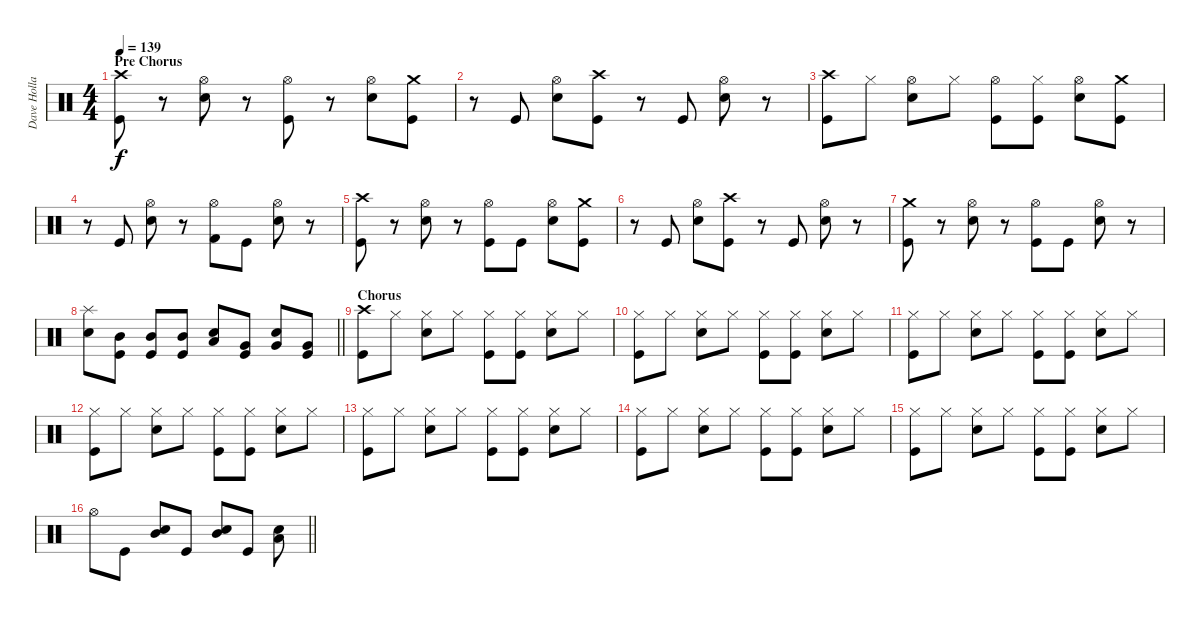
\track ("Dave Holland" "Dave Holla") {instrument percussion}
\staff {score}
\articulation defaults
\ts (4 4)
\section ("" "Pre Chorus")
\tempo 139
\clef neutral
\ks c
("Crash high (hit)" "Kick (hit)").8{dy f} r.8 ("Hi-Hat (open)" "Electric Snare (hit)").8 r.8 ("Hi-Hat (open)" "Kick (hit)").8 r.8 ("Hi-Hat (open)" "Electric Snare (hit)").8 ("Crash medium (hit)" "Kick (hit)").8 |
r.8 "Kick (hit)".8 ("Hi-Hat (open)" "Electric Snare (hit)").8 ("Crash high (hit)" "Kick (hit)").8 r.8 "Kick (hit)".8 ("Hi-Hat (open)" "Electric Snare (hit)").8 r.8 |
("Crash high (hit)" "Kick (hit)").8 "Hi-Hat (closed)".8 ("Hi-Hat (open)" "Electric Snare (hit)").8 "Hi-Hat (closed)".8 ("Hi-Hat (open)" "Kick (hit)").8 ("Hi-Hat (closed)" "Kick (hit)").8 ("Hi-Hat (open)" "Electric Snare (hit)").8 ("Crash medium (hit)" "Kick (hit)").8 |
r.8 "Kick (hit)".8 ("Hi-Hat (open)" "Electric Snare (hit)").8 r.8 ("Hi-Hat (open)" "Kick (hit) 2").8 "Kick (hit)".8 ("Hi-Hat (open)" "Electric Snare (hit)").8 r.8 |
("Crash high (hit)" "Kick (hit)").8 r.8 ("Hi-Hat (open)" "Electric Snare (hit)").8 r.8 ("Hi-Hat (open)" "Kick (hit)").8 "Kick (hit)".8 ("Hi-Hat (open)" "Electric Snare (hit)").8 ("Crash medium (hit)" "Kick (hit)").8 |
r.8 "Kick (hit)".8 ("Hi-Hat (open)" "Electric Snare (hit)").8 ("Crash high (hit)" "Kick (hit)").8 r.8 "Kick (hit)".8 ("Hi-Hat (open)" "Electric Snare (hit)").8 r.8 |
("Crash medium (hit)" "Kick (hit)").8 r.8 ("Hi-Hat (open)" "Electric Snare (hit)").8 r.8 ("Hi-Hat (open)" "Kick (hit)").8 "Kick (hit)".8 ("Hi-Hat (open)" "Electric Snare (hit)").8 r.8 |
\barLineRight lightlight
("Splash (hit)" "Electric Snare (hit)").8 ("Mid Tom (hit)" "Kick (hit)").8 ("Mid Tom (hit)" "Kick (hit)").8 ("Mid Tom (hit)" "Kick (hit)").8 ("Low Tom (hit)" "Electric Snare (hit)").8 ("Very Low Tom (hit)" "Kick (hit)").8 ("Very Low Tom (hit)" "Electric Snare (hit)").8 ("Very Low Tom (hit)" "Kick (hit)").8 |
\section ("" "Chorus")
("Crash high (hit)" "Kick (hit)").8 "Hi-Hat (closed)".8 ("Hi-Hat (closed)" "Electric Snare (hit)").8 "Hi-Hat (closed)".8 ("Hi-Hat (closed)" "Kick (hit)").8 ("Hi-Hat (closed)" "Kick (hit)").8 ("Hi-Hat (closed)" "Electric Snare (hit)").8 "Hi-Hat (closed)".8 |
("Hi-Hat (closed)" "Kick (hit)").8 "Hi-Hat (closed)".8 ("Hi-Hat (closed)" "Electric Snare (hit)").8 "Hi-Hat (closed)".8 ("Hi-Hat (closed)" "Kick (hit)").8 ("Hi-Hat (closed)" "Kick (hit)").8 ("Hi-Hat (closed)" "Electric Snare (hit)").8 "Hi-Hat (closed)".8 |
("Hi-Hat (closed)" "Kick (hit)").8 "Hi-Hat (closed)".8 ("Hi-Hat (closed)" "Electric Snare (hit)").8 "Hi-Hat (closed)".8 ("Hi-Hat (closed)" "Kick (hit)").8 ("Hi-Hat (closed)" "Kick (hit)").8 ("Hi-Hat (closed)" "Electric Snare (hit)").8 "Hi-Hat (closed)".8 |
("Hi-Hat (closed)" "Kick (hit)").8 "Hi-Hat (closed)".8 ("Hi-Hat (closed)" "Electric Snare (hit)").8 "Hi-Hat (closed)".8 ("Hi-Hat (closed)" "Kick (hit)").8 ("Hi-Hat (closed)" "Kick (hit)").8 ("Hi-Hat (closed)" "Electric Snare (hit)").8 "Hi-Hat (closed)".8 |
("Hi-Hat (closed)" "Kick (hit)").8 "Hi-Hat (closed)".8 ("Hi-Hat (closed)" "Electric Snare (hit)").8 "Hi-Hat (closed)".8 ("Hi-Hat (closed)" "Kick (hit)").8 ("Hi-Hat (closed)" "Kick (hit)").8 ("Hi-Hat (closed)" "Electric Snare (hit)").8 "Hi-Hat (closed)".8 |
("Hi-Hat (closed)" "Kick (hit)").8 "Hi-Hat (closed)".8 ("Hi-Hat (closed)" "Electric Snare (hit)").8 "Hi-Hat (closed)".8 ("Hi-Hat (closed)" "Kick (hit)").8 ("Hi-Hat (closed)" "Kick (hit)").8 ("Hi-Hat (closed)" "Electric Snare (hit)").8 "Hi-Hat (closed)".8 |
("Hi-Hat (closed)" "Kick (hit)").8 "Hi-Hat (closed)".8 ("Hi-Hat (closed)" "Electric Snare (hit)").8 "Hi-Hat (closed)".8 ("Hi-Hat (closed)" "Kick (hit)").8 ("Hi-Hat (closed)" "Kick (hit)").8 ("Hi-Hat (closed)" "Electric Snare (hit)").8 "Hi-Hat (closed)".8 |
\barLineRight lightlight "Hi-Hat (open)".8 "Kick (hit)".8
("Mid Tom (hit)" "Electric Snare (hit)").8 "Kick (hit)".8 ("Mid Tom (hit)" "Electric Snare (hit)").8 "Kick (hit)".8 ("Low Tom (hit)" "Electric Snare (hit)").8
